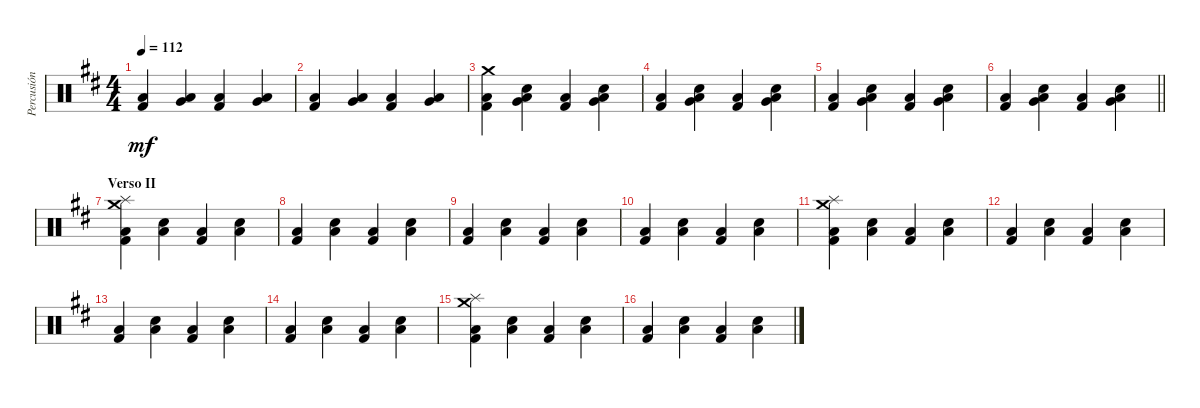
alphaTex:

\track ("Percusión" "Percusión") {instrument percussion}
\staff {score}
\articulation defaults
\ts (4 4)
\tempo 112
\clef neutral
\ks d
("Low Floor Tom (hit)" "Kick (hit) 2").4{dy mf} ("Very Low Tom (hit)" "Low Floor Tom (hit)").4 ("Low Floor Tom (hit)" "Kick (hit) 2").4 ("Very Low Tom (hit)" "Low Floor Tom (hit)").4 |
("Low Floor Tom (hit)" "Kick (hit) 2").4 ("Very Low Tom (hit)" "Low Floor Tom (hit)").4 ("Low Floor Tom (hit)" "Kick (hit) 2").4 ("Very Low Tom (hit)" "Low Floor Tom (hit)").4 |
("Crash medium (hit)" "Low Floor Tom (hit)" "Kick (hit) 2").4 ("Very Low Tom (hit)" "Low Floor Tom (hit)" "Snare (hit) 2").4 ("Low Floor Tom (hit)" "Kick (hit) 2").4 ("Very Low Tom (hit)" "Low Floor Tom (hit)" "Snare (hit) 2").4 |
("Low Floor Tom (hit)" "Kick (hit) 2").4 ("Very Low Tom (hit)" "Low Floor Tom (hit)" "Snare (hit) 2").4 ("Low Floor Tom (hit)" "Kick (hit) 2").4 ("Very Low Tom (hit)" "Low Floor Tom (hit)" "Snare (hit) 2").4 |
("Low Floor Tom (hit)" "Kick (hit) 2").4 ("Very Low Tom (hit)" "Low Floor Tom (hit)" "Snare (hit) 2").4 ("Low Floor Tom (hit)" "Kick (hit) 2").4 ("Very Low Tom (hit)" "Low Floor Tom (hit)" "Snare (hit) 2").4 |
\barLineRight lightlight
("Low Floor Tom (hit)" "Kick (hit) 2").4 ("Very Low Tom (hit)" "Low Floor Tom (hit)" "Snare (hit) 2").4 ("Low Floor Tom (hit)" "Kick (hit) 2").4 ("Very Low Tom (hit)" "Low Floor Tom (hit)" "Snare (hit) 2").4 |
\section ("" "Verso II")
("Crash medium (hit)" "Splash (hit)" "Low Floor Tom (hit)" "Kick (hit) 2").4 ("Low Floor Tom (hit)" "Snare (hit) 2").4 ("Low Floor Tom (hit)" "Kick (hit) 2").4 ("Low Floor Tom (hit)" "Snare (hit) 2").4 |
("Low Floor Tom (hit)" "Kick (hit) 2").4 ("Low Floor Tom (hit)" "Snare (hit) 2").4 ("Low Floor Tom (hit)" "Kick (hit) 2").4 ("Low Floor Tom (hit)" "Snare (hit) 2").4 |
("Low Floor Tom (hit)" "Kick (hit) 2").4 ("Low Floor Tom (hit)" "Snare (hit) 2").4 ("Low Floor Tom (hit)" "Kick (hit) 2").4 ("Low Floor Tom (hit)" "Snare (hit) 2").4 |
("Low Floor Tom (hit)" "Kick (hit) 2").4 ("Low Floor Tom (hit)" "Snare (hit) 2").4 ("Low Floor Tom (hit)" "Kick (hit) 2").4 ("Low Floor Tom (hit)" "Snare (hit) 2").4 |
("Crash medium (hit)" "Splash (hit)" "Low Floor Tom (hit)" "Kick (hit) 2").4 ("Low Floor Tom (hit)" "Snare (hit) 2").4 ("Low Floor Tom (hit)" "Kick (hit) 2").4 ("Low Floor Tom (hit)" "Snare (hit) 2").4 |
("Low Floor Tom (hit)" "Kick (hit) 2").4 ("Low Floor Tom (hit)" "Snare (hit) 2").4 ("Low Floor Tom (hit)" "Kick (hit) 2").4 ("Low Floor Tom (hit)" "Snare (hit) 2").4 |
("Low Floor Tom (hit)" "Kick (hit) 2").4 ("Low Floor Tom (hit)" "Snare (hit) 2").4 ("Low Floor Tom (hit)" "Kick (hit) 2").4 ("Low Floor Tom (hit)" "Snare (hit) 2").4 |
("Low Floor Tom (hit)" "Kick (hit) 2").4 ("Low Floor Tom (hit)" "Snare (hit) 2").4 ("Low Floor Tom (hit)" "Kick (hit) 2").4 ("Low Floor Tom (hit)" "Snare (hit) 2").4 |
("Crash medium (hit)" "Splash (hit)" "Low Floor Tom (hit)" "Kick (hit) 2").4 ("Low Floor Tom (hit)" "Snare (hit) 2").4 ("Low Floor Tom (hit)" "Kick (hit) 2").4 ("Low Floor Tom (hit)" "Snare (hit) 2").4 |
("Low Floor Tom (hit)" "Kick (hit) 2").4 ("Low Floor Tom (hit)" "Snare (hit) 2").4 ("Low Floor Tom (hit)" "Kick (hit) 2").4 ("Low Floor Tom (hit)" "Snare (hit) 2").4
